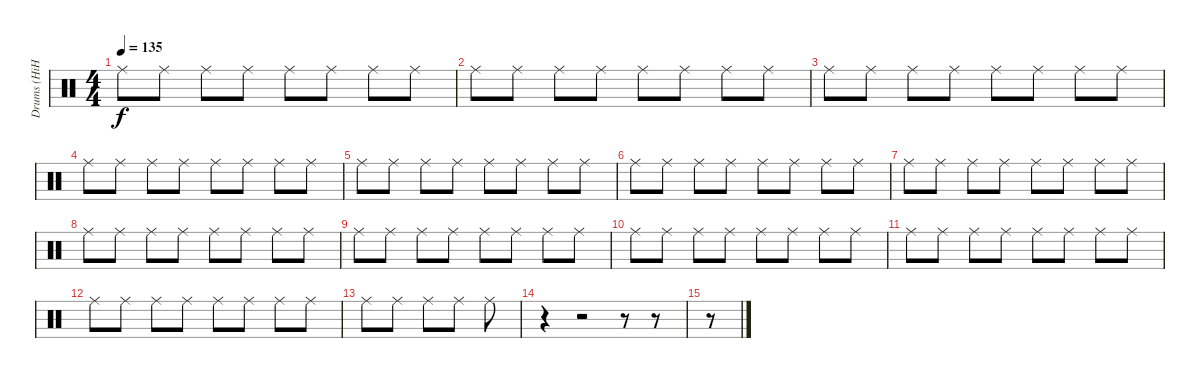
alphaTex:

\track ("Drums (HiHat)" "Drums (HiH") {instrument percussion}
\staff {score}
\articulation defaults
\ts (4 4)
\tempo 135
\clef neutral
\ks c "Ride (middle)".8{dy f} "Ride (middle)".8 "Ride (middle)".8 "Ride (middle)".8 "Ride (middle)".8 "Ride (middle)".8 "Ride (middle)".8 "Ride (middle)".8
|
"Ride (middle)".8 "Ride (middle)".8 "Ride (middle)".8 "Ride (middle)".8 "Ride (middle)".8 "Ride (middle)".8 "Ride (middle)".8 "Ride (middle)".8 |
"Ride (middle)".8 "Ride (middle)".8 "Ride (middle)".8 "Ride (middle)".8 "Ride (middle)".8 "Ride (middle)".8 "Ride (middle)".8 "Ride (middle)".8 |
"Ride (middle)".8 "Ride (middle)".8 "Ride (middle)".8 "Ride (middle)".8 "Ride (middle)".8 "Ride (middle)".8 "Ride (middle)".8 "Ride (middle)".8 |
"Ride (middle)".8 "Ride (middle)".8 "Ride (middle)".8 "Ride (middle)".8 "Ride (middle)".8 "Ride (middle)".8 "Ride (middle)".8 "Ride (middle)".8 |
"Ride (middle)".8 "Ride (middle)".8 "Ride (middle)".8 "Ride (middle)".8 "Ride (middle)".8 "Ride (middle)".8 "Ride (middle)".8 "Ride (middle)".8 |
"Ride (middle)".8 "Ride (middle)".8 "Ride (middle)".8 "Ride (middle)".8 "Ride (middle)".8 "Ride (middle)".8 "Ride (middle)".8 "Ride (middle)".8 |
"Ride (middle)".8 "Ride (middle)".8 "Ride (middle)".8 "Ride (middle)".8 "Ride (middle)".8 "Ride (middle)".8 "Ride (middle)".8 "Ride (middle)".8 |
"Ride (middle)".8 "Ride (middle)".8 "Ride (middle)".8 "Ride (middle)".8 "Ride (middle)".8 "Ride (middle)".8 "Ride (middle)".8 "Ride (middle)".8 |
"Ride (middle)".8 "Ride (middle)".8 "Ride (middle)".8 "Ride (middle)".8 "Ride (middle)".8 "Ride (middle)".8 "Ride (middle)".8 "Ride (middle)".8 |
"Ride (middle)".8 "Ride (middle)".8 "Ride (middle)".8 "Ride (middle)".8 "Ride (middle)".8 "Ride (middle)".8 "Ride (middle)".8 "Ride (middle)".8 |
"Ride (middle)".8 "Ride (middle)".8 "Ride (middle)".8 "Ride (middle)".8 "Ride (middle)".8 "Ride (middle)".8 "Ride (middle)".8 "Ride (middle)".8 |
"Ride (middle)".8 "Ride (middle)".8 "Ride (middle)".8 "Ride (middle)".8 "Ride (middle)".8 |
r.4 r.2 r.8 r.8 |
r.8
